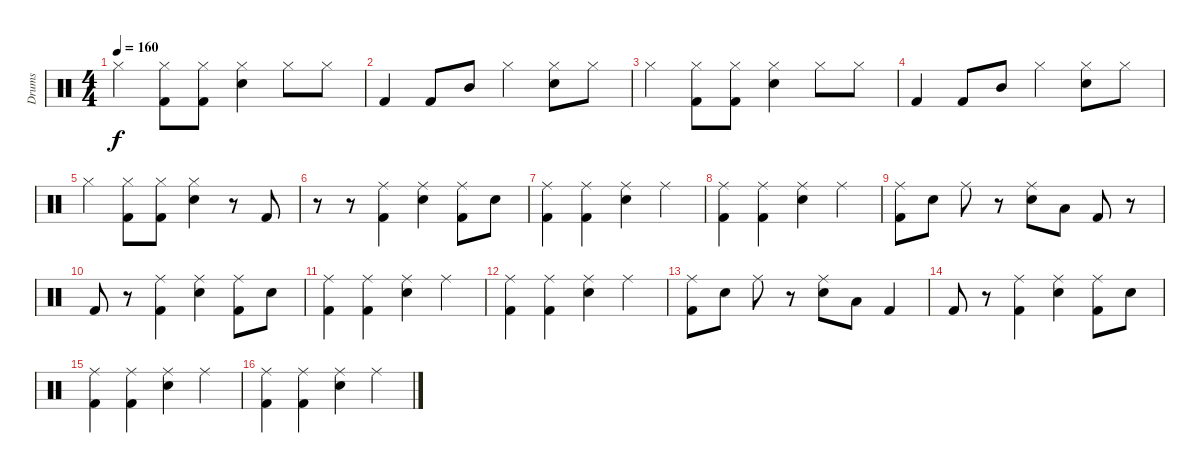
\track ("Drums" "Drums") {instrument percussion}
\staff {score}
\articulation defaults
\ts (4 4)
\tempo 160
\clef neutral
\ks c "Hi-Hat (closed)".4{dy f}
("Hi-Hat (closed)" "Kick (hit) 2").8 ("Hi-Hat (closed)" "Kick (hit) 2").8 ("Hi-Hat (closed)" "Snare (hit) 2").4 "Hi-Hat (closed)".8 "Hi-Hat (closed)".8 |
"Kick (hit) 2".4 "Kick (hit) 2".8 "Mid Tom (hit)".8 "Hi-Hat (closed)".4 ("Hi-Hat (closed)" "Snare (hit) 2").8 "Hi-Hat (closed)".8 |
"Hi-Hat (closed)".4 ("Hi-Hat (closed)" "Kick (hit) 2").8 ("Hi-Hat (closed)" "Kick (hit) 2").8 ("Hi-Hat (closed)" "Snare (hit) 2").4 "Hi-Hat (closed)".8 "Hi-Hat (closed)".8 |
"Kick (hit) 2".4 "Kick (hit) 2".8 "Mid Tom (hit)".8 "Hi-Hat (closed)".4 ("Hi-Hat (closed)" "Snare (hit) 2").8 "Hi-Hat (closed)".8 |
"Hi-Hat (closed)".4 ("Hi-Hat (closed)" "Kick (hit) 2").8 ("Hi-Hat (closed)" "Kick (hit) 2").8 ("Hi-Hat (closed)" "Snare (hit) 2").4 r.8 "Kick (hit) 2".8 |
r.8 r.8 ("Ride (middle)" "Kick (hit) 2").4 ("Ride (middle)" "Snare (hit) 2").4 ("Ride (middle)" "Kick (hit) 2").8 "Snare (hit) 2".8 |
("Ride (middle)" "Kick (hit) 2").4 ("Ride (middle)" "Kick (hit) 2").4 ("Ride (middle)" "Snare (hit) 2").4 "Ride (middle)".4 |
("Ride (middle)" "Kick (hit) 2").4 ("Ride (middle)" "Kick (hit) 2").4 ("Ride (middle)" "Snare (hit) 2").4 "Ride (middle)".4 |
("Ride (middle)" "Kick (hit) 2").8 "Snare (hit) 2".8 "Ride (middle)".8 r.8 ("Ride (middle)" "Snare (hit) 2").8 "Low Tom (hit)".8 "Kick (hit) 2".8 r.8 |
"Kick (hit) 2".8 r.8 ("Ride (middle)" "Kick (hit) 2").4 ("Ride (middle)" "Snare (hit) 2").4 ("Ride (middle)" "Kick (hit) 2").8 "Snare (hit) 2".8 |
("Ride (middle)" "Kick (hit) 2").4 ("Ride (middle)" "Kick (hit) 2").4 ("Ride (middle)" "Snare (hit) 2").4 "Ride (middle)".4 |
("Ride (middle)" "Kick (hit) 2").4 ("Ride (middle)" "Kick (hit) 2").4 ("Ride (middle)" "Snare (hit) 2").4 "Ride (middle)".4 |
("Ride (middle)" "Kick (hit) 2").8 "Snare (hit) 2".8 "Ride (middle)".8 r.8 ("Ride (middle)" "Snare (hit) 2").8 "Low Tom (hit)".8 "Kick (hit) 2".4 |
"Kick (hit) 2".8 r.8 ("Ride (middle)" "Kick (hit) 2").4 ("Ride (middle)" "Snare (hit) 2").4 ("Ride (middle)" "Kick (hit) 2").8 "Snare (hit) 2".8 |
("Ride (middle)" "Kick (hit) 2").4 ("Ride (middle)" "Kick (hit) 2").4 ("Ride (middle)" "Snare (hit) 2").4 "Ride (middle)".4 |
("Ride (middle)" "Kick (hit) 2").4 ("Ride (middle)" "Kick (hit) 2").4 ("Ride (middle)" "Snare (hit) 2").4 "Ride (middle)".4
